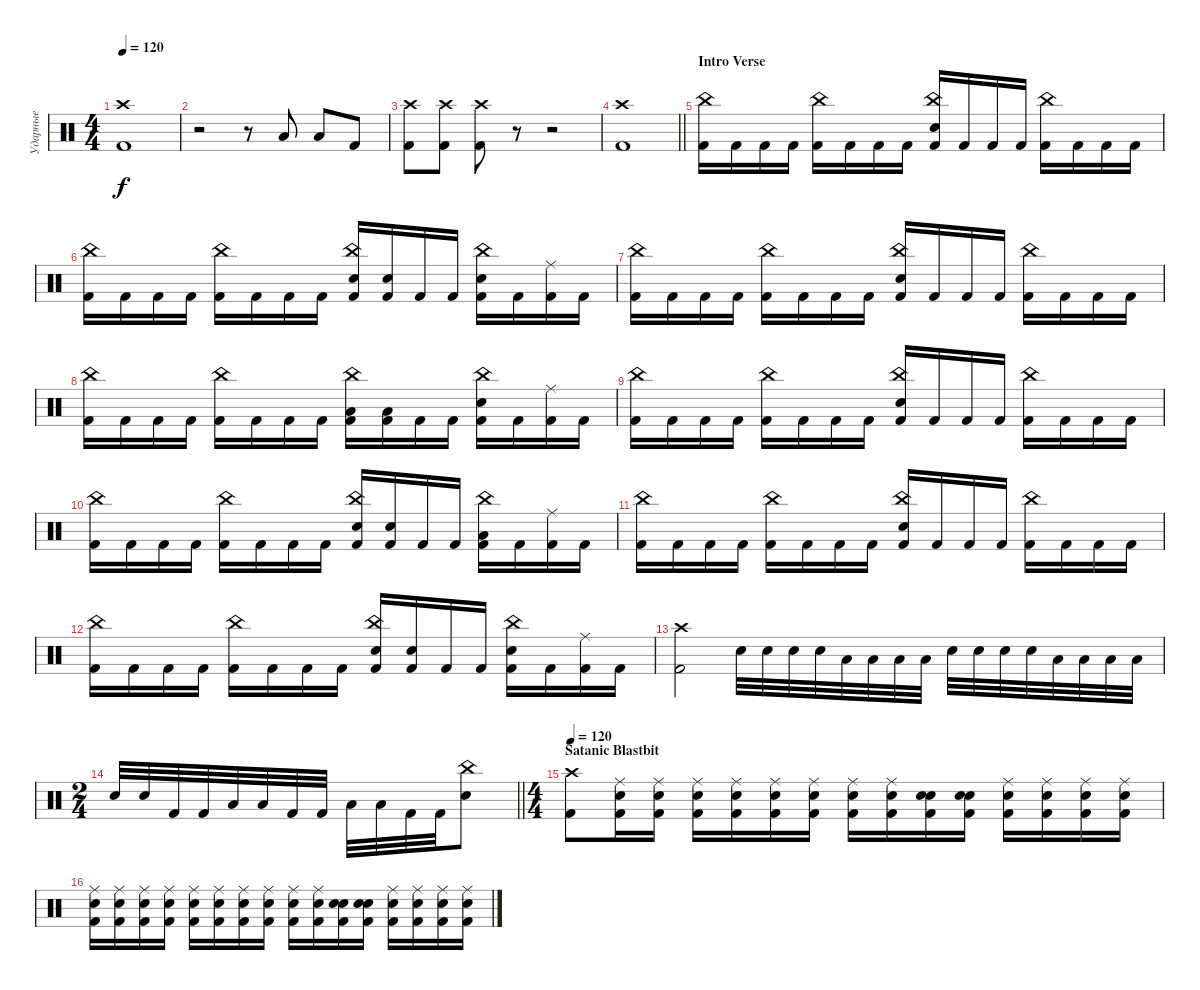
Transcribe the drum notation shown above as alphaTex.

\track ("Ударные" "Ударные") {instrument percussion}
\staff {score}
\articulation defaults
\ts (4 4)
\tempo 120
\clef neutral
\ks c
("Crash high (hit)" "Kick (hit) 2").1{dy f} |
r.2 r.8 "Low Tom (hit)".8 "Low Floor Tom (hit)".8 "Kick (hit) 2".8 |
("Crash high (hit)" "Kick (hit) 2").8 ("Crash high (hit)" "Kick (hit) 2").8 ("Crash high (hit)" "Kick (hit) 2").8 r.8 r.2 |
\barLineRight lightlight
("Crash high (hit)" "Kick (hit) 2").1 |
\section ("" "Intro Verse")
("China (hit)" "Kick (hit) 2").16 "Kick (hit) 2".16 "Kick (hit) 2".16 "Kick (hit) 2".16 ("China (hit)" "Kick (hit) 2").16 "Kick (hit) 2".16 "Kick (hit) 2".16 "Kick (hit) 2".16 ("China (hit)" "Electric Snare (hit)" "Kick (hit) 2").16 "Kick (hit) 2".16 "Kick (hit) 2".16 "Kick (hit) 2".16 ("China (hit)" "Kick (hit) 2").16 "Kick (hit) 2".16 "Kick (hit) 2".16 "Kick (hit) 2".16 |
("China (hit)" "Kick (hit) 2").16 "Kick (hit) 2".16 "Kick (hit) 2".16 "Kick (hit) 2".16 ("China (hit)" "Kick (hit) 2").16 "Kick (hit) 2".16 "Kick (hit) 2".16 "Kick (hit) 2".16 ("China (hit)" "Electric Snare (hit)" "Kick (hit) 2").16 ("Electric Snare (hit)" "Kick (hit) 2").16 "Kick (hit) 2".16 "Kick (hit) 2".16 ("China (hit)" "Electric Snare (hit)" "Kick (hit) 2").16 "Kick (hit) 2".16 ("Ride (middle)" "Kick (hit) 2").16 "Kick (hit) 2".16 |
("China (hit)" "Kick (hit) 2").16 "Kick (hit) 2".16 "Kick (hit) 2".16 "Kick (hit) 2".16 ("China (hit)" "Kick (hit) 2").16 "Kick (hit) 2".16 "Kick (hit) 2".16 "Kick (hit) 2".16 ("China (hit)" "Electric Snare (hit)" "Kick (hit) 2").16 "Kick (hit) 2".16 "Kick (hit) 2".16 "Kick (hit) 2".16 ("China (hit)" "Kick (hit) 2").16 "Kick (hit) 2".16 "Kick (hit) 2".16 "Kick (hit) 2".16 |
("China (hit)" "Kick (hit) 2").16 "Kick (hit) 2".16 "Kick (hit) 2".16 "Kick (hit) 2".16 ("China (hit)" "Kick (hit) 2").16 "Kick (hit) 2".16 "Kick (hit) 2".16 "Kick (hit) 2".16 ("China (hit)" "Low Tom (hit)" "Kick (hit) 2").16 ("Low Tom (hit)" "Kick (hit) 2").16 "Kick (hit) 2".16 "Kick (hit) 2".16 ("China (hit)" "Electric Snare (hit)" "Kick (hit) 2").16 "Kick (hit) 2".16 ("Ride (middle)" "Kick (hit) 2").16 "Kick (hit) 2".16 |
("China (hit)" "Kick (hit) 2").16 "Kick (hit) 2".16 "Kick (hit) 2".16 "Kick (hit) 2".16 ("China (hit)" "Kick (hit) 2").16 "Kick (hit) 2".16 "Kick (hit) 2".16 "Kick (hit) 2".16 ("China (hit)" "Electric Snare (hit)" "Kick (hit) 2").16 "Kick (hit) 2".16 "Kick (hit) 2".16 "Kick (hit) 2".16 ("China (hit)" "Kick (hit) 2").16 "Kick (hit) 2".16 "Kick (hit) 2".16 "Kick (hit) 2".16 |
("China (hit)" "Kick (hit) 2").16 "Kick (hit) 2".16 "Kick (hit) 2".16 "Kick (hit) 2".16 ("China (hit)" "Kick (hit) 2").16 "Kick (hit) 2".16 "Kick (hit) 2".16 "Kick (hit) 2".16 ("China (hit)" "Electric Snare (hit)" "Kick (hit) 2").16 ("Electric Snare (hit)" "Kick (hit) 2").16 "Kick (hit) 2".16 "Kick (hit) 2".16 ("China (hit)" "Low Tom (hit)" "Kick (hit) 2").16 "Kick (hit) 2".16 ("Ride (middle)" "Kick (hit) 2").16 "Kick (hit) 2".16 |
("China (hit)" "Kick (hit) 2").16 "Kick (hit) 2".16 "Kick (hit) 2".16 "Kick (hit) 2".16 ("China (hit)" "Kick (hit) 2").16 "Kick (hit) 2".16 "Kick (hit) 2".16 "Kick (hit) 2".16 ("China (hit)" "Electric Snare (hit)" "Kick (hit) 2").16 "Kick (hit) 2".16 "Kick (hit) 2".16 "Kick (hit) 2".16 ("China (hit)" "Kick (hit) 2").16 "Kick (hit) 2".16 "Kick (hit) 2".16 "Kick (hit) 2".16 |
("China (hit)" "Kick (hit) 2").16 "Kick (hit) 2".16 "Kick (hit) 2".16 "Kick (hit) 2".16 ("China (hit)" "Kick (hit) 2").16 "Kick (hit) 2".16 "Kick (hit) 2".16 "Kick (hit) 2".16 ("China (hit)" "Electric Snare (hit)" "Kick (hit) 2").16 ("Electric Snare (hit)" "Kick (hit) 2").16 "Kick (hit) 2".16 "Kick (hit) 2".16 ("China (hit)" "Electric Snare (hit)" "Kick (hit) 2").16 "Kick (hit) 2".16 ("Ride (middle)" "Kick (hit) 2").16 "Kick (hit) 2".16 |
("Crash high (hit)" "Kick (hit) 2").2 "Electric Snare (hit)".32 "Electric Snare (hit)".32 "Electric Snare (hit)".32 "Electric Snare (hit)".32 "Low Tom (hit)".32 "Low Tom (hit)".32 "Low Tom (hit)".32 "Low Tom (hit)".32 "Electric Snare (hit)".32 "Electric Snare (hit)".32 "Electric Snare (hit)".32 "Electric Snare (hit)".32 "Low Tom (hit)".32 "Low Tom (hit)".32 "Low Tom (hit)".32 "Low Tom (hit)".32 |
\ts (2 4)
\barLineRight lightlight "Electric Snare (hit)".32 "Electric Snare (hit)".32 "Kick (hit) 2".32 "Kick (hit) 2".32 "Low Tom (hit)".32 "Low Tom (hit)".32 "Kick (hit) 2".32 "Kick (hit) 2".32 "Low Floor Tom (hit)".32 "Low Floor Tom (hit)".32 "Kick (hit) 2".32 "Kick (hit) 2".32
("China (hit)" "Electric Snare (hit)").8 |
\ts (4 4)
\section ("" "Satanic Blastbit")
\tempo 120
("Crash high (hit)" "Kick (hit) 2").8 ("Ride (middle)" "Electric Snare (hit)" "Kick (hit) 2").16 ("Ride (middle)" "Electric Snare (hit)" "Kick (hit) 2").16 ("Ride (middle)" "Electric Snare (hit)" "Kick (hit) 2").16 ("Ride (middle)" "Electric Snare (hit)" "Kick (hit) 2").16 ("Ride (middle)" "Electric Snare (hit)" "Kick (hit) 2").16 ("Ride (middle)" "Electric Snare (hit)" "Kick (hit) 2").16 ("Ride (middle)" "Electric Snare (hit)" "Kick (hit) 2").16 ("Ride (middle)" "Electric Snare (hit)" "Kick (hit) 2").16 ("Snare (hit)" "Electric Snare (hit)" "Kick (hit) 2").16 ("Snare (hit)" "Electric Snare (hit)" "Kick (hit) 2").16 ("Ride (middle)" "Electric Snare (hit)" "Kick (hit) 2").16 ("Ride (middle)" "Electric Snare (hit)" "Kick (hit) 2").16 ("Ride (middle)" "Electric Snare (hit)" "Kick (hit) 2").16 ("Ride (middle)" "Electric Snare (hit)" "Kick (hit) 2").16 |
("Ride (middle)" "Electric Snare (hit)" "Kick (hit) 2").16 ("Ride (middle)" "Electric Snare (hit)" "Kick (hit) 2").16 ("Ride (middle)" "Electric Snare (hit)" "Kick (hit) 2").16 ("Ride (middle)" "Electric Snare (hit)" "Kick (hit) 2").16 ("Ride (middle)" "Electric Snare (hit)" "Kick (hit) 2").16 ("Ride (middle)" "Electric Snare (hit)" "Kick (hit) 2").16 ("Ride (middle)" "Electric Snare (hit)" "Kick (hit) 2").16 ("Ride (middle)" "Electric Snare (hit)" "Kick (hit) 2").16 ("Ride (middle)" "Electric Snare (hit)" "Kick (hit) 2").16 ("Ride (middle)" "Electric Snare (hit)" "Kick (hit) 2").16 ("Snare (hit)" "Electric Snare (hit)" "Kick (hit) 2").16 ("Snare (hit)" "Electric Snare (hit)" "Kick (hit) 2").16 ("Ride (middle)" "Electric Snare (hit)" "Kick (hit) 2").16 ("Ride (middle)" "Electric Snare (hit)" "Kick (hit) 2").16 ("Ride (middle)" "Electric Snare (hit)" "Kick (hit) 2").16 ("Ride (middle)" "Electric Snare (hit)" "Kick (hit) 2").16
